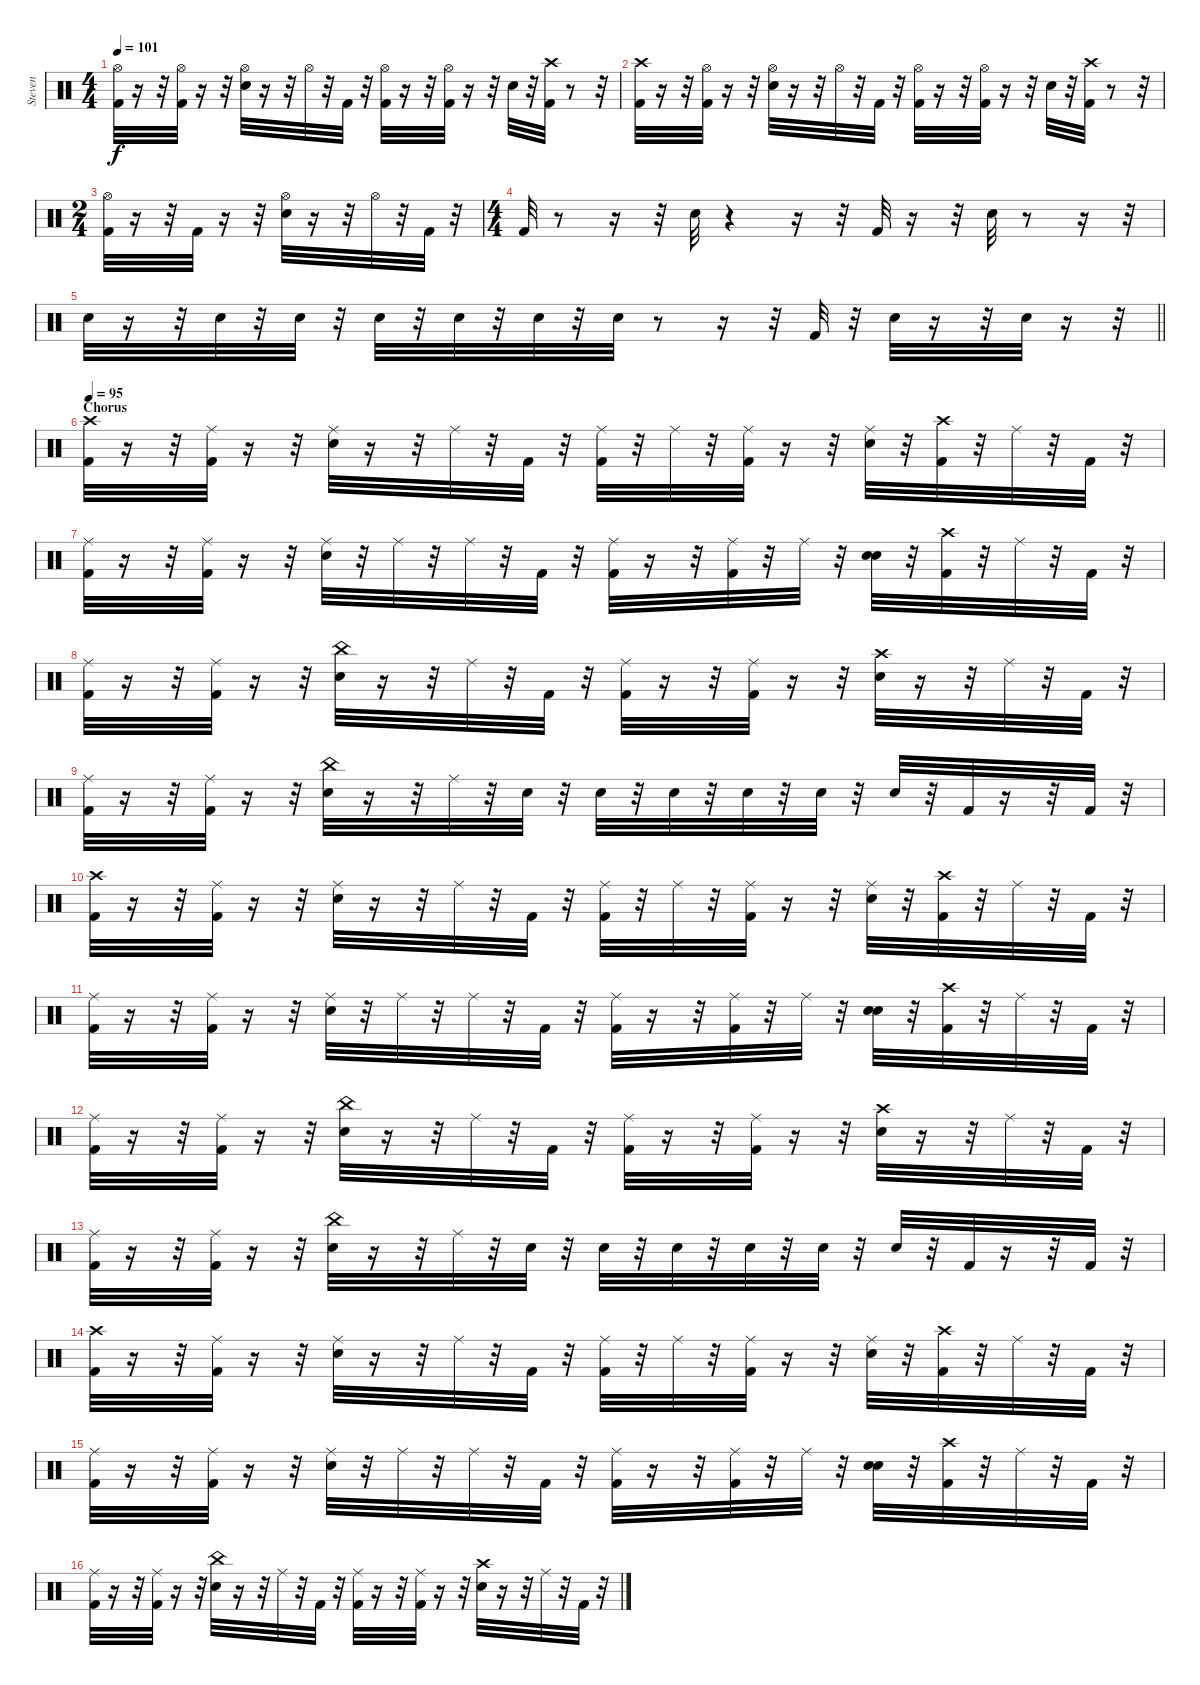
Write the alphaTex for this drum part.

\track ("Steven" "Steven") {instrument percussion}
\staff {score}
\articulation defaults
\ts (4 4)
\tempo 101
\clef neutral
\ks c
("Hi-Hat (open)" "Kick (hit) 2").32{dy f} r.16 r.32 ("Kick (hit) 2" "Hi-Hat (open)").32 r.16 r.32 ("Hi-Hat (open)" "Snare (hit) 2").32 r.16 r.32 "Hi-Hat (open)".32 r.32 "Kick (hit) 2".32 r.32 ("Kick (hit) 2" "Hi-Hat (open)").32 r.16 r.32 ("Kick (hit) 2" "Hi-Hat (open)").32 r.16 r.32 "Snare (hit) 2".32 r.32 ("Kick (hit) 2" "Crash high (hit)").32 r.8 r.32 |
("Crash high (hit)" "Kick (hit) 2").32 r.16 r.32 ("Kick (hit) 2" "Hi-Hat (open)").32 r.16 r.32 ("Snare (hit) 2" "Hi-Hat (open)").32 r.16 r.32 "Hi-Hat (open)".32 r.32 "Kick (hit) 2".32 r.32 ("Kick (hit) 2" "Hi-Hat (open)").32 r.16 r.32 ("Hi-Hat (open)" "Kick (hit) 2").32 r.16 r.32 "Snare (hit) 2".32 r.32 ("Crash high (hit)" "Kick (hit) 2").32 r.8 r.32 |
\ts (2 4)
("Kick (hit) 2" "Hi-Hat (open)").32 r.16 r.32 "Kick (hit) 2".32 r.16 r.32 ("Snare (hit) 2" "Hi-Hat (open)").32 r.16 r.32 "Hi-Hat (open)".32 r.32 "Kick (hit) 2".32 r.32 |
\ts (4 4)
"Kick (hit) 2".32 r.8 r.16 r.32 "Snare (hit) 2".32 r.4 r.16 r.32 "Kick (hit) 2".32 r.16 r.32 "Snare (hit) 2".32 r.8 r.16 r.32 |
\barLineRight lightlight "Snare (hit) 2".32
r.16 r.32 "Snare (hit) 2".32 r.32 "Snare (hit) 2".32 r.32 "Snare (hit) 2".32 r.32 "Snare (hit) 2".32 r.32 "Snare (hit) 2".32 r.32 "Snare (hit) 2".32 r.8 r.16 r.32 "Kick (hit) 2".32 r.32 "Snare (hit) 2".32 r.16 r.32 "Snare (hit) 2".32 r.16 r.32 |
\section ("" "Chorus")
\tempo 95
("Crash high (hit)" "Kick (hit) 2").32 r.16 r.32 ("Kick (hit) 2" "Ride (middle)").32 r.16 r.32 ("Ride (middle)" "Snare (hit) 2").32 r.16 r.32 "Ride (middle)".32 r.32 "Kick (hit) 2".32 r.32 ("Kick (hit) 2" "Ride (middle)").32 r.32 "Ride (middle)".32 r.32 ("Ride (middle)" "Kick (hit) 2").32 r.16 r.32 ("Snare (hit) 2" "Ride (middle)").32 r.32 ("Crash high (hit)" "Kick (hit) 2").32 r.32 "Ride (middle)".32 r.32 "Kick (hit) 2".32 r.32 |
("Kick (hit) 2" "Ride (middle)").32 r.16 r.32 ("Kick (hit) 2" "Ride (middle)").32 r.16 r.32 ("Snare (hit) 2" "Ride (middle)").32 r.32 "Ride (middle)".32 r.32 "Ride (middle)".32 r.32 "Kick (hit) 2".32 r.32 ("Ride (middle)" "Kick (hit) 2").32 r.16 r.32 ("Kick (hit) 2" "Ride (middle)").32 r.32 "Ride (middle)".32 r.32 ("Electric Snare (hit)" "Snare (hit) 2").32 r.32 ("Kick (hit) 2" "Crash high (hit)").32 r.32 "Ride (middle)".32 r.32 "Kick (hit) 2".32 r.32 |
("Kick (hit) 2" "Ride (middle)").32 r.16 r.32 ("Kick (hit) 2" "Ride (middle)").32 r.16 r.32 ("China (hit)" "Snare (hit) 2").32 r.16 r.32 "Ride (middle)".32 r.32 "Kick (hit) 2".32 r.32 ("Kick (hit) 2" "Ride (middle)").32 r.16 r.32 ("Ride (middle)" "Kick (hit) 2").32 r.16 r.32 ("Snare (hit) 2" "Crash high (hit)").32 r.16 r.32 "Ride (middle)".32 r.32 "Kick (hit) 2".32 r.32 |
("Ride (middle)" "Kick (hit) 2").32 r.16 r.32 ("Kick (hit) 2" "Ride (middle)").32 r.16 r.32 ("Snare (hit) 2" "China (hit)").32 r.16 r.32 "Ride (middle)".32 r.32 "Snare (hit) 2".32 r.32 "Snare (hit) 2".32 r.32 "Snare (hit) 2".32 r.32 "Snare (hit) 2".32 r.32 "Snare (hit) 2".32 r.32 "Snare (hit) 2".32 r.32 "Kick (hit) 2".32 r.16 r.32 "Kick (hit) 2".32 r.32 |
("Crash high (hit)" "Kick (hit) 2").32 r.16 r.32 ("Kick (hit) 2" "Ride (middle)").32 r.16 r.32 ("Ride (middle)" "Snare (hit) 2").32 r.16 r.32 "Ride (middle)".32 r.32 "Kick (hit) 2".32 r.32 ("Kick (hit) 2" "Ride (middle)").32 r.32 "Ride (middle)".32 r.32 ("Ride (middle)" "Kick (hit) 2").32 r.16 r.32 ("Snare (hit) 2" "Ride (middle)").32 r.32 ("Crash high (hit)" "Kick (hit) 2").32 r.32 "Ride (middle)".32 r.32 "Kick (hit) 2".32 r.32 |
("Kick (hit) 2" "Ride (middle)").32 r.16 r.32 ("Kick (hit) 2" "Ride (middle)").32 r.16 r.32 ("Snare (hit) 2" "Ride (middle)").32 r.32 "Ride (middle)".32 r.32 "Ride (middle)".32 r.32 "Kick (hit) 2".32 r.32 ("Ride (middle)" "Kick (hit) 2").32 r.16 r.32 ("Kick (hit) 2" "Ride (middle)").32 r.32 "Ride (middle)".32 r.32 ("Electric Snare (hit)" "Snare (hit) 2").32 r.32 ("Kick (hit) 2" "Crash high (hit)").32 r.32 "Ride (middle)".32 r.32 "Kick (hit) 2".32 r.32 |
("Kick (hit) 2" "Ride (middle)").32 r.16 r.32 ("Kick (hit) 2" "Ride (middle)").32 r.16 r.32 ("China (hit)" "Snare (hit) 2").32 r.16 r.32 "Ride (middle)".32 r.32 "Kick (hit) 2".32 r.32 ("Kick (hit) 2" "Ride (middle)").32 r.16 r.32 ("Ride (middle)" "Kick (hit) 2").32 r.16 r.32 ("Snare (hit) 2" "Crash high (hit)").32 r.16 r.32 "Ride (middle)".32 r.32 "Kick (hit) 2".32 r.32 |
("Ride (middle)" "Kick (hit) 2").32 r.16 r.32 ("Kick (hit) 2" "Ride (middle)").32 r.16 r.32 ("Snare (hit) 2" "China (hit)").32 r.16 r.32 "Ride (middle)".32 r.32 "Snare (hit) 2".32 r.32 "Snare (hit) 2".32 r.32 "Snare (hit) 2".32 r.32 "Snare (hit) 2".32 r.32 "Snare (hit) 2".32 r.32 "Snare (hit) 2".32 r.32 "Kick (hit) 2".32 r.16 r.32 "Kick (hit) 2".32 r.32 |
("Crash high (hit)" "Kick (hit) 2").32 r.16 r.32 ("Kick (hit) 2" "Ride (middle)").32 r.16 r.32 ("Ride (middle)" "Snare (hit) 2").32 r.16 r.32 "Ride (middle)".32 r.32 "Kick (hit) 2".32 r.32 ("Kick (hit) 2" "Ride (middle)").32 r.32 "Ride (middle)".32 r.32 ("Ride (middle)" "Kick (hit) 2").32 r.16 r.32 ("Snare (hit) 2" "Ride (middle)").32 r.32 ("Crash high (hit)" "Kick (hit) 2").32 r.32 "Ride (middle)".32 r.32 "Kick (hit) 2".32 r.32 |
("Kick (hit) 2" "Ride (middle)").32 r.16 r.32 ("Kick (hit) 2" "Ride (middle)").32 r.16 r.32 ("Snare (hit) 2" "Ride (middle)").32 r.32 "Ride (middle)".32 r.32 "Ride (middle)".32 r.32 "Kick (hit) 2".32 r.32 ("Ride (middle)" "Kick (hit) 2").32 r.16 r.32 ("Kick (hit) 2" "Ride (middle)").32 r.32 "Ride (middle)".32 r.32 ("Electric Snare (hit)" "Snare (hit) 2").32 r.32 ("Kick (hit) 2" "Crash high (hit)").32 r.32 "Ride (middle)".32 r.32 "Kick (hit) 2".32 r.32 |
("Kick (hit) 2" "Ride (middle)").32 r.16 r.32 ("Kick (hit) 2" "Ride (middle)").32 r.16 r.32 ("China (hit)" "Snare (hit) 2").32 r.16 r.32 "Ride (middle)".32 r.32 "Kick (hit) 2".32 r.32 ("Kick (hit) 2" "Ride (middle)").32 r.16 r.32 ("Ride (middle)" "Kick (hit) 2").32 r.16 r.32 ("Snare (hit) 2" "Crash high (hit)").32 r.16 r.32 "Ride (middle)".32 r.32 "Kick (hit) 2".32 r.32
